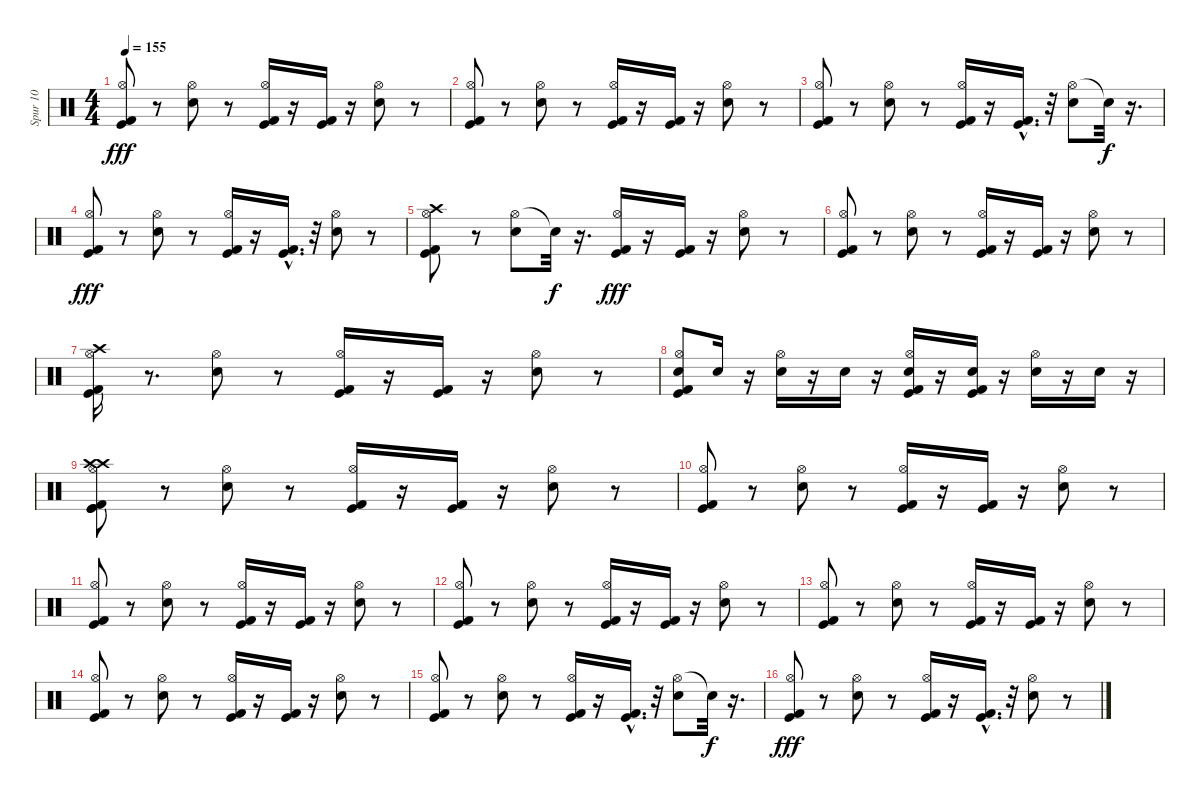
\track ("Spur 10" "Spur 10") {instrument percussion}
\staff {score}
\articulation defaults
\ts (4 4)
\tempo 155
\clef neutral
\ks c
("Kick (hit)" "Hi-Hat (open)" "Kick (hit) 2").8{dy fff} r.8 ("Hi-Hat (open)" "Electric Snare (hit)").8 r.8 ("Kick (hit)" "Hi-Hat (open)" "Kick (hit) 2").16 r.16 ("Kick (hit)" "Kick (hit) 2").16 r.16 ("Hi-Hat (open)" "Electric Snare (hit)").8 r.8 |
("Kick (hit)" "Hi-Hat (open)" "Kick (hit) 2").8 r.8 ("Hi-Hat (open)" "Electric Snare (hit)").8 r.8 ("Kick (hit)" "Hi-Hat (open)" "Kick (hit) 2").16 r.16 ("Kick (hit)" "Kick (hit) 2").16 r.16 ("Hi-Hat (open)" "Electric Snare (hit)").8 r.8 |
("Kick (hit)" "Hi-Hat (open)" "Kick (hit) 2").8 r.8 ("Hi-Hat (open)" "Electric Snare (hit)").8 r.8 ("Kick (hit)" "Hi-Hat (open)" "Kick (hit) 2").16 r.16 ("Kick (hit)"{hac} "Kick (hit) 2"{hac}).16{d} r.32 ("Hi-Hat (open)" "Electric Snare (hit)").8 "Snare (hit)"{t}.32{dy f} r.16{d} |
("Kick (hit)" "Hi-Hat (open)" "Kick (hit) 2").8{dy fff} r.8 ("Hi-Hat (open)" "Electric Snare (hit)").8 r.8 ("Kick (hit)" "Hi-Hat (open)" "Kick (hit) 2").16 r.16 ("Kick (hit)"{hac} "Kick (hit) 2"{hac}).16{d} r.32 ("Hi-Hat (open)" "Electric Snare (hit)").8 r.8 |
("Crash high (hit)" "Kick (hit)" "Hi-Hat (open)" "Kick (hit) 2").8 r.8 ("Hi-Hat (open)" "Electric Snare (hit)").8 "Snare (hit)"{t}.32{dy f} r.16{d} ("Kick (hit)" "Hi-Hat (open)" "Kick (hit) 2").16{dy fff} r.16 ("Kick (hit)" "Kick (hit) 2").16 r.16 ("Hi-Hat (open)" "Electric Snare (hit)").8 r.8 |
("Kick (hit)" "Hi-Hat (open)" "Kick (hit) 2").8 r.8 ("Hi-Hat (open)" "Electric Snare (hit)").8 r.8 ("Kick (hit)" "Hi-Hat (open)" "Kick (hit) 2").16 r.16 ("Kick (hit)" "Kick (hit) 2").16 r.16 ("Hi-Hat (open)" "Electric Snare (hit)").8 r.8 |
("Kick (hit)" "Crash high (hit)" "Hi-Hat (open)" "Kick (hit) 2").16 r.8{d} ("Hi-Hat (open)" "Electric Snare (hit)").8 r.8 ("Kick (hit)" "Hi-Hat (open)" "Kick (hit) 2").16 r.16 ("Kick (hit)" "Kick (hit) 2").16 r.16 ("Hi-Hat (open)" "Electric Snare (hit)").8 r.8 |
("Electric Snare (hit)" "Kick (hit)" "Hi-Hat (open)" "Kick (hit) 2").8 "Electric Snare (hit)".16 r.16 ("Electric Snare (hit)" "Hi-Hat (open)").16 r.16 "Electric Snare (hit)".16 r.16 ("Electric Snare (hit)" "Kick (hit)" "Hi-Hat (open)" "Kick (hit) 2").16 r.16 ("Electric Snare (hit)" "Kick (hit)" "Kick (hit) 2").16 r.16 ("Electric Snare (hit)" "Hi-Hat (open)").16 r.16 "Electric Snare (hit)".16 r.16 |
("Crash high (hit)" "Kick (hit)" "Kick (hit) 2" "Kick (hit)" "Crash high (hit)" "Hi-Hat (open)").8 r.8 ("Hi-Hat (open)" "Electric Snare (hit)").8 r.8 ("Kick (hit)" "Hi-Hat (open)" "Kick (hit) 2").16 r.16 ("Kick (hit)" "Kick (hit) 2").16 r.16 ("Hi-Hat (open)" "Electric Snare (hit)").8 r.8 |
("Kick (hit)" "Hi-Hat (open)" "Kick (hit) 2").8 r.8 ("Hi-Hat (open)" "Electric Snare (hit)").8 r.8 ("Kick (hit)" "Hi-Hat (open)" "Kick (hit) 2").16 r.16 ("Kick (hit)" "Kick (hit) 2").16 r.16 ("Hi-Hat (open)" "Electric Snare (hit)").8 r.8 |
("Kick (hit)" "Hi-Hat (open)" "Kick (hit) 2").8 r.8 ("Hi-Hat (open)" "Electric Snare (hit)").8 r.8 ("Kick (hit)" "Hi-Hat (open)" "Kick (hit) 2").16 r.16 ("Kick (hit)" "Kick (hit) 2").16 r.16 ("Hi-Hat (open)" "Electric Snare (hit)").8 r.8 |
("Kick (hit)" "Hi-Hat (open)" "Kick (hit) 2").8 r.8 ("Hi-Hat (open)" "Electric Snare (hit)").8 r.8 ("Kick (hit)" "Hi-Hat (open)" "Kick (hit) 2").16 r.16 ("Kick (hit)" "Kick (hit) 2").16 r.16 ("Hi-Hat (open)" "Electric Snare (hit)").8 r.8 |
("Kick (hit)" "Hi-Hat (open)" "Kick (hit) 2").8 r.8 ("Hi-Hat (open)" "Electric Snare (hit)").8 r.8 ("Kick (hit)" "Hi-Hat (open)" "Kick (hit) 2").16 r.16 ("Kick (hit)" "Kick (hit) 2").16 r.16 ("Hi-Hat (open)" "Electric Snare (hit)").8 r.8 |
("Kick (hit)" "Hi-Hat (open)" "Kick (hit) 2").8 r.8 ("Hi-Hat (open)" "Electric Snare (hit)").8 r.8 ("Kick (hit)" "Hi-Hat (open)" "Kick (hit) 2").16 r.16 ("Kick (hit)" "Kick (hit) 2").16 r.16 ("Hi-Hat (open)" "Electric Snare (hit)").8 r.8 |
("Kick (hit)" "Hi-Hat (open)" "Kick (hit) 2").8 r.8 ("Hi-Hat (open)" "Electric Snare (hit)").8 r.8 ("Kick (hit)" "Hi-Hat (open)" "Kick (hit) 2").16 r.16 ("Kick (hit)"{hac} "Kick (hit) 2"{hac}).16{d} r.32 ("Hi-Hat (open)" "Electric Snare (hit)").8 "Snare (hit)"{t}.32{dy f} r.16{d} |
("Kick (hit)" "Hi-Hat (open)" "Kick (hit) 2").8{dy fff} r.8 ("Hi-Hat (open)" "Electric Snare (hit)").8 r.8 ("Kick (hit)" "Hi-Hat (open)" "Kick (hit) 2").16 r.16 ("Kick (hit)"{hac} "Kick (hit) 2"{hac}).16{d} r.32 ("Hi-Hat (open)" "Electric Snare (hit)").8 r.8
